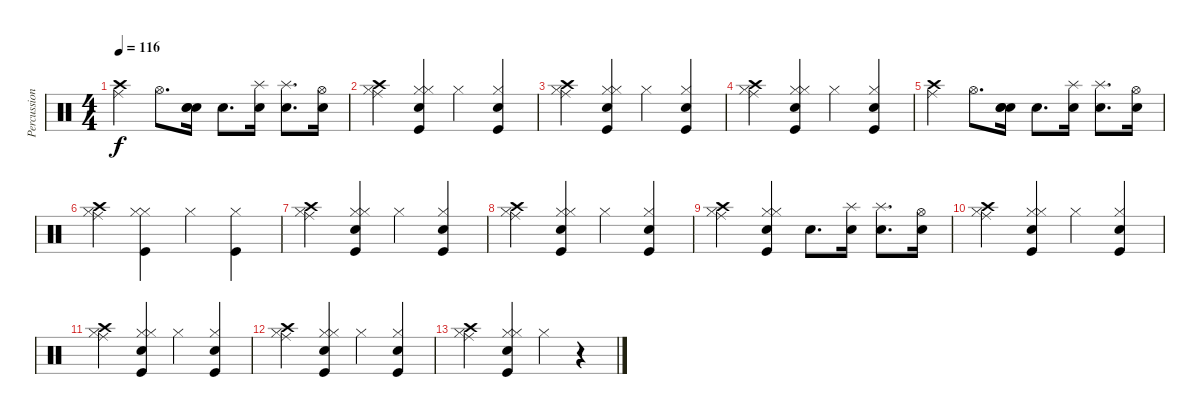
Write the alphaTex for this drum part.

\track ("Percussion ( Densmore)" "Percussion") {instrument percussion}
\staff {score}
\articulation defaults
\ts (4 4)
\tempo 116
\clef neutral
\ks c
("Ride (middle)" "Crash high (hit)").4{dy f} "Hi-Hat (open)".8{d} ("Snare (hit) 2" "Snare (hit) 2" "Snare (hit) 2").16 "Snare (hit) 2".8{d} ("Splash (hit)" "Snare (hit) 2").16 ("Splash (hit)" "Snare (hit) 2").8{d} ("Hi-Hat (open)" "Snare (hit) 2").16 |
("Hi-Hat (closed)" "Ride (middle)" "Crash high (hit)").4 ("Hi-Hat (closed)" "Hi-Hat (closed)" "Kick (hit)" "Snare (hit) 2").4 "Hi-Hat (closed)".4 ("Hi-Hat (closed)" "Snare (hit) 2" "Kick (hit)").4 |
("Hi-Hat (closed)" "Ride (middle)" "Crash high (hit)").4 ("Hi-Hat (closed)" "Hi-Hat (closed)" "Kick (hit)" "Snare (hit) 2").4 "Hi-Hat (closed)".4 ("Hi-Hat (closed)" "Snare (hit) 2" "Kick (hit)").4 |
("Hi-Hat (closed)" "Ride (middle)" "Crash high (hit)").4 ("Hi-Hat (closed)" "Hi-Hat (closed)" "Kick (hit)" "Snare (hit) 2").4 "Hi-Hat (closed)".4 ("Hi-Hat (closed)" "Snare (hit) 2" "Kick (hit)").4 |
("Ride (middle)" "Crash high (hit)").4 "Hi-Hat (open)".8{d} ("Snare (hit) 2" "Snare (hit) 2" "Snare (hit) 2").16 "Snare (hit) 2".8{d} ("Splash (hit)" "Snare (hit) 2").16 ("Splash (hit)" "Snare (hit) 2").8{d} ("Hi-Hat (open)" "Snare (hit) 2").16 |
("Hi-Hat (closed)" "Ride (middle)" "Crash high (hit)").4 ("Hi-Hat (closed)" "Hi-Hat (closed)" "Kick (hit)").4 "Hi-Hat (closed)".4 ("Hi-Hat (closed)" "Kick (hit)").4 |
("Hi-Hat (closed)" "Ride (middle)" "Crash high (hit)").4 ("Hi-Hat (closed)" "Hi-Hat (closed)" "Kick (hit)" "Snare (hit) 2").4 "Hi-Hat (closed)".4 ("Hi-Hat (closed)" "Snare (hit) 2" "Kick (hit)").4 |
("Hi-Hat (closed)" "Ride (middle)" "Crash high (hit)").4 ("Hi-Hat (closed)" "Hi-Hat (closed)" "Kick (hit)" "Snare (hit) 2").4 "Hi-Hat (closed)".4 ("Hi-Hat (closed)" "Snare (hit) 2" "Kick (hit)").4 |
("Hi-Hat (closed)" "Ride (middle)" "Crash high (hit)").4 ("Hi-Hat (closed)" "Hi-Hat (closed)" "Kick (hit)" "Snare (hit) 2").4 "Snare (hit) 2".8{d} ("Splash (hit)" "Snare (hit) 2").16 ("Splash (hit)" "Snare (hit) 2").8{d} ("Hi-Hat (open)" "Snare (hit) 2").16 |
("Hi-Hat (closed)" "Ride (middle)" "Crash high (hit)").4 ("Hi-Hat (closed)" "Hi-Hat (closed)" "Kick (hit)" "Snare (hit) 2").4 "Hi-Hat (closed)".4 ("Hi-Hat (closed)" "Snare (hit) 2" "Kick (hit)").4 |
("Hi-Hat (closed)" "Ride (middle)" "Crash high (hit)").4 ("Hi-Hat (closed)" "Hi-Hat (closed)" "Kick (hit)" "Snare (hit) 2").4 "Hi-Hat (closed)".4 ("Hi-Hat (closed)" "Snare (hit) 2" "Kick (hit)").4 |
("Hi-Hat (closed)" "Ride (middle)" "Crash high (hit)").4 ("Hi-Hat (closed)" "Hi-Hat (closed)" "Kick (hit)" "Snare (hit) 2").4 "Hi-Hat (closed)".4 ("Hi-Hat (closed)" "Snare (hit) 2" "Kick (hit)").4 |
("Hi-Hat (closed)" "Ride (middle)" "Crash high (hit)").4 ("Hi-Hat (closed)" "Hi-Hat (closed)" "Kick (hit)" "Snare (hit) 2").4 "Hi-Hat (closed)".4 r.4
